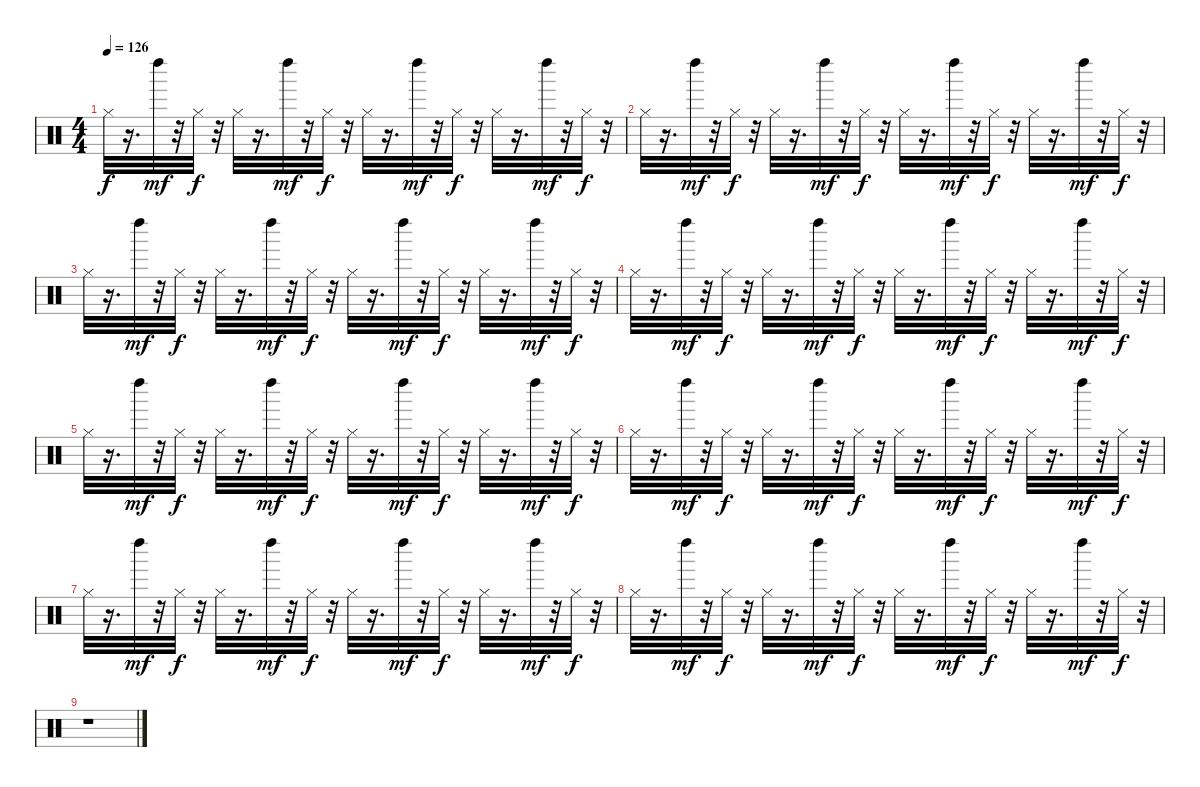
\track "" {instrument percussion}
\staff {score}
\articulation defaults
\ts (4 4)
\tempo 126
\clef neutral
\ks c "Hi-Hat (closed)".32{dy f}
r.16{d} "Left Maraca (hit)".32{dy mf} r.32 "Hi-Hat (closed)".32{dy f} r.32 "Hi-Hat (closed)".32 r.16{d} "Left Maraca (hit)".32{dy mf} r.32 "Hi-Hat (closed)".32{dy f} r.32 "Hi-Hat (closed)".32 r.16{d} "Left Maraca (hit)".32{dy mf} r.32 "Hi-Hat (closed)".32{dy f} r.32 "Hi-Hat (closed)".32 r.16{d} "Left Maraca (hit)".32{dy mf} r.32 "Hi-Hat (closed)".32{dy f} r.32 |
"Hi-Hat (closed)".32 r.16{d} "Left Maraca (hit)".32{dy mf} r.32 "Hi-Hat (closed)".32{dy f} r.32 "Hi-Hat (closed)".32 r.16{d} "Left Maraca (hit)".32{dy mf} r.32 "Hi-Hat (closed)".32{dy f} r.32 "Hi-Hat (closed)".32 r.16{d} "Left Maraca (hit)".32{dy mf} r.32 "Hi-Hat (closed)".32{dy f} r.32 "Hi-Hat (closed)".32 r.16{d} "Left Maraca (hit)".32{dy mf} r.32 "Hi-Hat (closed)".32{dy f} r.32 |
"Hi-Hat (closed)".32 r.16{d} "Left Maraca (hit)".32{dy mf} r.32 "Hi-Hat (closed)".32{dy f} r.32 "Hi-Hat (closed)".32 r.16{d} "Left Maraca (hit)".32{dy mf} r.32 "Hi-Hat (closed)".32{dy f} r.32 "Hi-Hat (closed)".32 r.16{d} "Left Maraca (hit)".32{dy mf} r.32 "Hi-Hat (closed)".32{dy f} r.32 "Hi-Hat (closed)".32 r.16{d} "Left Maraca (hit)".32{dy mf} r.32 "Hi-Hat (closed)".32{dy f} r.32 |
"Hi-Hat (closed)".32 r.16{d} "Left Maraca (hit)".32{dy mf} r.32 "Hi-Hat (closed)".32{dy f} r.32 "Hi-Hat (closed)".32 r.16{d} "Left Maraca (hit)".32{dy mf} r.32 "Hi-Hat (closed)".32{dy f} r.32 "Hi-Hat (closed)".32 r.16{d} "Left Maraca (hit)".32{dy mf} r.32 "Hi-Hat (closed)".32{dy f} r.32 "Hi-Hat (closed)".32 r.16{d} "Left Maraca (hit)".32{dy mf} r.32 "Hi-Hat (closed)".32{dy f} r.32 |
"Hi-Hat (closed)".32 r.16{d} "Left Maraca (hit)".32{dy mf} r.32 "Hi-Hat (closed)".32{dy f} r.32 "Hi-Hat (closed)".32 r.16{d} "Left Maraca (hit)".32{dy mf} r.32 "Hi-Hat (closed)".32{dy f} r.32 "Hi-Hat (closed)".32 r.16{d} "Left Maraca (hit)".32{dy mf} r.32 "Hi-Hat (closed)".32{dy f} r.32 "Hi-Hat (closed)".32 r.16{d} "Left Maraca (hit)".32{dy mf} r.32 "Hi-Hat (closed)".32{dy f} r.32 |
"Hi-Hat (closed)".32 r.16{d} "Left Maraca (hit)".32{dy mf} r.32 "Hi-Hat (closed)".32{dy f} r.32 "Hi-Hat (closed)".32 r.16{d} "Left Maraca (hit)".32{dy mf} r.32 "Hi-Hat (closed)".32{dy f} r.32 "Hi-Hat (closed)".32 r.16{d} "Left Maraca (hit)".32{dy mf} r.32 "Hi-Hat (closed)".32{dy f} r.32 "Hi-Hat (closed)".32 r.16{d} "Left Maraca (hit)".32{dy mf} r.32 "Hi-Hat (closed)".32{dy f} r.32 |
"Hi-Hat (closed)".32 r.16{d} "Left Maraca (hit)".32{dy mf} r.32 "Hi-Hat (closed)".32{dy f} r.32 "Hi-Hat (closed)".32 r.16{d} "Left Maraca (hit)".32{dy mf} r.32 "Hi-Hat (closed)".32{dy f} r.32 "Hi-Hat (closed)".32 r.16{d} "Left Maraca (hit)".32{dy mf} r.32 "Hi-Hat (closed)".32{dy f} r.32 "Hi-Hat (closed)".32 r.16{d} "Left Maraca (hit)".32{dy mf} r.32 "Hi-Hat (closed)".32{dy f} r.32 |
"Hi-Hat (closed)".32 r.16{d} "Left Maraca (hit)".32{dy mf} r.32 "Hi-Hat (closed)".32{dy f} r.32 "Hi-Hat (closed)".32 r.16{d} "Left Maraca (hit)".32{dy mf} r.32 "Hi-Hat (closed)".32{dy f} r.32 "Hi-Hat (closed)".32 r.16{d} "Left Maraca (hit)".32{dy mf} r.32 "Hi-Hat (closed)".32{dy f} r.32 "Hi-Hat (closed)".32 r.16{d} "Left Maraca (hit)".32{dy mf} r.32 "Hi-Hat (closed)".32{dy f} r.32 |
r.1
